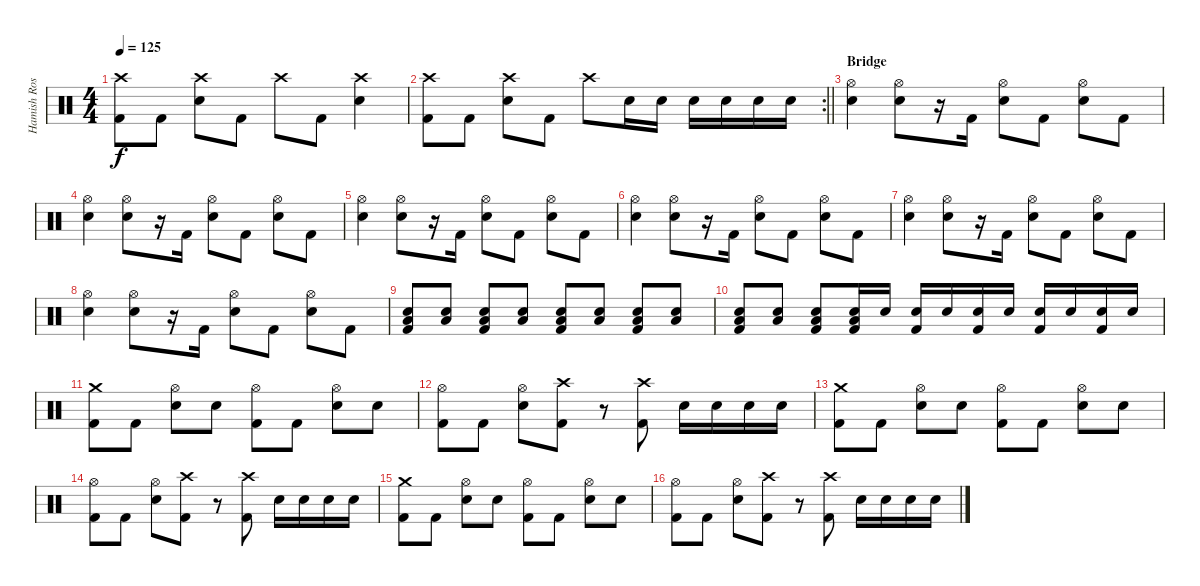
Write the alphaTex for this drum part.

\track ("Hamish Rosser" "Hamish Ros") {instrument percussion}
\staff {score}
\articulation defaults
\ts (4 4)
\tempo 125
\clef neutral
\ks c
("Crash high (hit)" "Kick (hit) 2").8{dy f} "Kick (hit) 2".8 ("Crash high (hit)" "Electric Snare (hit)").8 "Kick (hit) 2".8 "Crash high (hit)".8 "Kick (hit) 2".8 ("Crash high (hit)" "Electric Snare (hit)").4 |
\rc 2
\barLineRight lightlight
("Crash high (hit)" "Kick (hit) 2").8 "Kick (hit) 2".8 ("Crash high (hit)" "Electric Snare (hit)").8 "Kick (hit) 2".8 "Crash high (hit)".8 "Electric Snare (hit)".16 "Electric Snare (hit)".16 "Electric Snare (hit)".16 "Electric Snare (hit)".16 "Electric Snare (hit)".16 "Electric Snare (hit)".16 |
\section ("" "Bridge")
("Hi-Hat (open)" "Electric Snare (hit)").4 ("Hi-Hat (open)" "Electric Snare (hit)").8 r.16 "Kick (hit) 2".16 ("Hi-Hat (open)" "Electric Snare (hit)").8 "Kick (hit) 2".8 ("Hi-Hat (open)" "Electric Snare (hit)").8 "Kick (hit) 2".8 |
("Hi-Hat (open)" "Electric Snare (hit)").4 ("Hi-Hat (open)" "Electric Snare (hit)").8 r.16 "Kick (hit) 2".16 ("Hi-Hat (open)" "Electric Snare (hit)").8 "Kick (hit) 2".8 ("Hi-Hat (open)" "Electric Snare (hit)").8 "Kick (hit) 2".8 |
("Hi-Hat (open)" "Electric Snare (hit)").4 ("Hi-Hat (open)" "Electric Snare (hit)").8 r.16 "Kick (hit) 2".16 ("Hi-Hat (open)" "Electric Snare (hit)").8 "Kick (hit) 2".8 ("Hi-Hat (open)" "Electric Snare (hit)").8 "Kick (hit) 2".8 |
("Hi-Hat (open)" "Electric Snare (hit)").4 ("Hi-Hat (open)" "Electric Snare (hit)").8 r.16 "Kick (hit) 2".16 ("Hi-Hat (open)" "Electric Snare (hit)").8 "Kick (hit) 2".8 ("Hi-Hat (open)" "Electric Snare (hit)").8 "Kick (hit) 2".8 |
("Hi-Hat (open)" "Electric Snare (hit)").4 ("Hi-Hat (open)" "Electric Snare (hit)").8 r.16 "Kick (hit) 2".16 ("Hi-Hat (open)" "Electric Snare (hit)").8 "Kick (hit) 2".8 ("Hi-Hat (open)" "Electric Snare (hit)").8 "Kick (hit) 2".8 |
("Hi-Hat (open)" "Electric Snare (hit)").4 ("Hi-Hat (open)" "Electric Snare (hit)").8 r.16 "Kick (hit) 2".16 ("Hi-Hat (open)" "Electric Snare (hit)").8 "Kick (hit) 2".8 ("Hi-Hat (open)" "Electric Snare (hit)").8 "Kick (hit) 2".8 |
("Low Floor Tom (hit)" "Electric Snare (hit)" "Kick (hit) 2").8 ("Low Floor Tom (hit)" "Electric Snare (hit)").8 ("Low Floor Tom (hit)" "Electric Snare (hit)" "Kick (hit) 2").8 ("Low Floor Tom (hit)" "Electric Snare (hit)").8 ("Low Floor Tom (hit)" "Electric Snare (hit)" "Kick (hit) 2").8 ("Low Floor Tom (hit)" "Electric Snare (hit)").8 ("Low Floor Tom (hit)" "Electric Snare (hit)" "Kick (hit) 2").8 ("Low Floor Tom (hit)" "Electric Snare (hit)").8 |
("Low Floor Tom (hit)" "Electric Snare (hit)" "Kick (hit) 2").8 ("Low Floor Tom (hit)" "Electric Snare (hit)").8 ("Low Floor Tom (hit)" "Electric Snare (hit)" "Kick (hit) 2").8 ("Low Floor Tom (hit)" "Electric Snare (hit)" "Kick (hit) 2").16 "Electric Snare (hit)".16 ("Electric Snare (hit)" "Kick (hit) 2").16 "Electric Snare (hit)".16 ("Electric Snare (hit)" "Kick (hit) 2").16 "Electric Snare (hit)".16 ("Electric Snare (hit)" "Kick (hit) 2").16 "Electric Snare (hit)".16 ("Electric Snare (hit)" "Kick (hit) 2").16 "Electric Snare (hit)".16 |
("Crash medium (hit)" "Kick (hit) 2").8 "Kick (hit) 2".8 ("Hi-Hat (open)" "Electric Snare (hit)").8 "Electric Snare (hit)".8 ("Hi-Hat (open)" "Kick (hit) 2").8 "Kick (hit) 2".8 ("Hi-Hat (open)" "Electric Snare (hit)").8 "Electric Snare (hit)".8 |
("Hi-Hat (open)" "Kick (hit) 2").8 "Kick (hit) 2".8 ("Hi-Hat (open)" "Electric Snare (hit)").8 ("Crash high (hit)" "Kick (hit) 2").8 r.8 ("Crash high (hit)" "Kick (hit) 2").8 "Electric Snare (hit)".16 "Electric Snare (hit)".16 "Electric Snare (hit)".16 "Electric Snare (hit)".16 |
("Crash medium (hit)" "Kick (hit) 2").8 "Kick (hit) 2".8 ("Hi-Hat (open)" "Electric Snare (hit)").8 "Electric Snare (hit)".8 ("Hi-Hat (open)" "Kick (hit) 2").8 "Kick (hit) 2".8 ("Hi-Hat (open)" "Electric Snare (hit)").8 "Electric Snare (hit)".8 |
("Hi-Hat (open)" "Kick (hit) 2").8 "Kick (hit) 2".8 ("Hi-Hat (open)" "Electric Snare (hit)").8 ("Crash high (hit)" "Kick (hit) 2").8 r.8 ("Crash high (hit)" "Kick (hit) 2").8 "Electric Snare (hit)".16 "Electric Snare (hit)".16 "Electric Snare (hit)".16 "Electric Snare (hit)".16 |
("Crash medium (hit)" "Kick (hit) 2").8 "Kick (hit) 2".8 ("Hi-Hat (open)" "Electric Snare (hit)").8 "Electric Snare (hit)".8 ("Hi-Hat (open)" "Kick (hit) 2").8 "Kick (hit) 2".8 ("Hi-Hat (open)" "Electric Snare (hit)").8 "Electric Snare (hit)".8 |
("Hi-Hat (open)" "Kick (hit) 2").8 "Kick (hit) 2".8 ("Hi-Hat (open)" "Electric Snare (hit)").8 ("Crash high (hit)" "Kick (hit) 2").8 r.8 ("Crash high (hit)" "Kick (hit) 2").8 "Electric Snare (hit)".16 "Electric Snare (hit)".16 "Electric Snare (hit)".16 "Electric Snare (hit)".16
